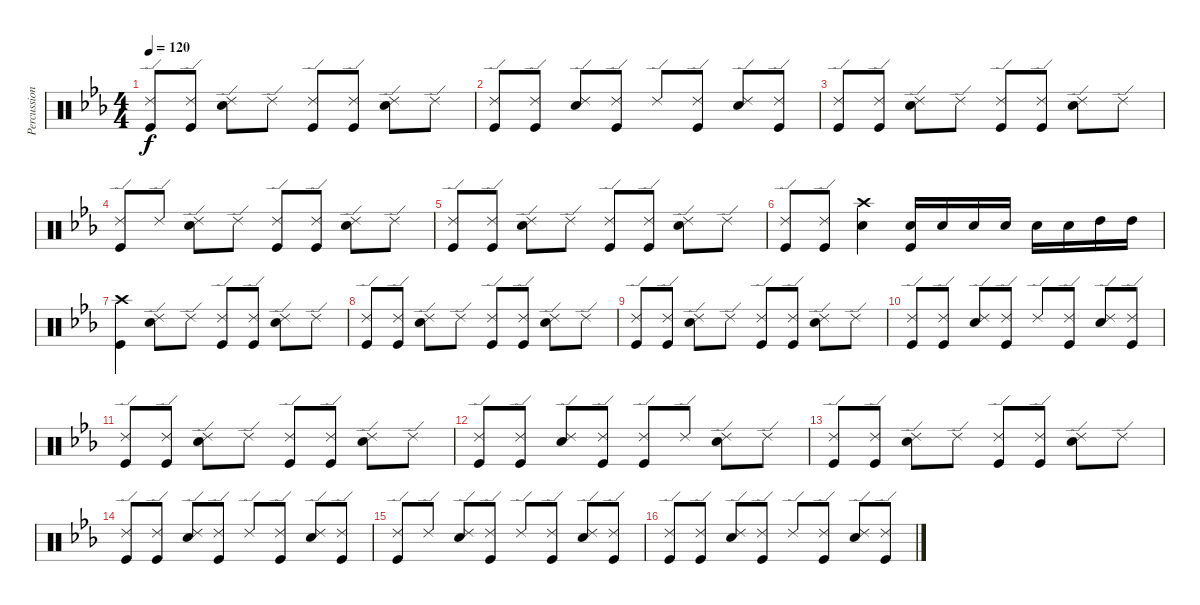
\track ("Percussion" "Percussion") {instrument percussion}
\staff {score}
\articulation defaults
\ts (4 4)
\tempo 120
\clef neutral
\ks eb
("Ride (edge) 2" "Kick (hit)").8{dy f} ("Ride (edge) 2" "Kick (hit)").8 ("Ride (edge) 2" "Snare (hit) 2").8 "Ride (edge) 2".8 ("Ride (edge) 2" "Kick (hit)").8 ("Ride (edge) 2" "Kick (hit)").8 ("Ride (edge) 2" "Snare (hit) 2").8 "Ride (edge) 2".8 |
("Ride (edge) 2" "Kick (hit)").8 ("Ride (edge) 2" "Kick (hit)").8 ("Ride (edge) 2" "Snare (hit) 2").8 ("Ride (edge) 2" "Kick (hit)").8 "Ride (edge) 2".8 ("Ride (edge) 2" "Kick (hit)").8 ("Ride (edge) 2" "Snare (hit) 2").8 ("Ride (edge) 2" "Kick (hit)").8 |
("Ride (edge) 2" "Kick (hit)").8 ("Ride (edge) 2" "Kick (hit)").8 ("Ride (edge) 2" "Snare (hit) 2").8 "Ride (edge) 2".8 ("Ride (edge) 2" "Kick (hit)").8 ("Ride (edge) 2" "Kick (hit)").8 ("Ride (edge) 2" "Snare (hit) 2").8 "Ride (edge) 2".8 |
("Ride (edge) 2" "Kick (hit)").8 "Ride (edge) 2".8 ("Ride (edge) 2" "Snare (hit) 2").8 "Ride (edge) 2".8 ("Ride (edge) 2" "Kick (hit)").8 ("Ride (edge) 2" "Kick (hit)").8 ("Ride (edge) 2" "Snare (hit) 2").8 "Ride (edge) 2".8 |
("Ride (edge) 2" "Kick (hit)").8 ("Ride (edge) 2" "Kick (hit)").8 ("Ride (edge) 2" "Snare (hit) 2").8 "Ride (edge) 2".8 ("Ride (edge) 2" "Kick (hit)").8 ("Ride (edge) 2" "Kick (hit)").8 ("Ride (edge) 2" "Snare (hit) 2").8 "Ride (edge) 2".8 |
("Ride (edge) 2" "Kick (hit)").8 ("Ride (edge) 2" "Kick (hit)").8 ("Crash high (hit)" "Snare (hit) 2").4 ("Snare (hit) 2" "Kick (hit)").16 "Snare (hit) 2".16 "Snare (hit) 2".16 "Snare (hit) 2".16 "Snare (hit) 2".16 "Snare (hit) 2".16 "High Tom (hit)".16 "High Tom (hit)".16 |
("Crash high (hit)" "Kick (hit)").4 ("Ride (edge) 2" "Snare (hit) 2").8 "Ride (edge) 2".8 ("Ride (edge) 2" "Kick (hit)").8 ("Ride (edge) 2" "Kick (hit)").8 ("Ride (edge) 2" "Snare (hit) 2").8 "Ride (edge) 2".8 |
("Ride (edge) 2" "Kick (hit)").8 ("Ride (edge) 2" "Kick (hit)").8 ("Ride (edge) 2" "Snare (hit) 2").8 "Ride (edge) 2".8 ("Ride (edge) 2" "Kick (hit)").8 ("Ride (edge) 2" "Kick (hit)").8 ("Ride (edge) 2" "Snare (hit) 2").8 "Ride (edge) 2".8 |
("Ride (edge) 2" "Kick (hit)").8 ("Ride (edge) 2" "Kick (hit)").8 ("Ride (edge) 2" "Snare (hit) 2").8 "Ride (edge) 2".8 ("Ride (edge) 2" "Kick (hit)").8 ("Ride (edge) 2" "Kick (hit)").8 ("Ride (edge) 2" "Snare (hit) 2").8 "Ride (edge) 2".8 |
("Ride (edge) 2" "Kick (hit)").8 ("Ride (edge) 2" "Kick (hit)").8 ("Ride (edge) 2" "Snare (hit) 2").8 ("Ride (edge) 2" "Kick (hit)").8 "Ride (edge) 2".8 ("Ride (edge) 2" "Kick (hit)").8 ("Ride (edge) 2" "Snare (hit) 2").8 ("Ride (edge) 2" "Kick (hit)").8 |
("Ride (edge) 2" "Kick (hit)").8 ("Ride (edge) 2" "Kick (hit)").8 ("Ride (edge) 2" "Snare (hit) 2").8 "Ride (edge) 2".8 ("Ride (edge) 2" "Kick (hit)").8 ("Ride (edge) 2" "Kick (hit)").8 ("Ride (edge) 2" "Snare (hit) 2").8 "Ride (edge) 2".8 |
("Ride (edge) 2" "Kick (hit)").8 ("Ride (edge) 2" "Kick (hit)").8 ("Ride (edge) 2" "Snare (hit) 2").8 ("Ride (edge) 2" "Kick (hit)").8 ("Ride (edge) 2" "Kick (hit)").8 "Ride (edge) 2".8 ("Ride (edge) 2" "Snare (hit) 2").8 "Ride (edge) 2".8 |
("Ride (edge) 2" "Kick (hit)").8 ("Ride (edge) 2" "Kick (hit)").8 ("Ride (edge) 2" "Snare (hit) 2").8 "Ride (edge) 2".8 ("Ride (edge) 2" "Kick (hit)").8 ("Ride (edge) 2" "Kick (hit)").8 ("Ride (edge) 2" "Snare (hit) 2").8 "Ride (edge) 2".8 |
("Ride (edge) 2" "Kick (hit)").8 ("Ride (edge) 2" "Kick (hit)").8 ("Ride (edge) 2" "Snare (hit) 2").8 ("Ride (edge) 2" "Kick (hit)").8 "Ride (edge) 2".8 ("Ride (edge) 2" "Kick (hit)").8 ("Ride (edge) 2" "Snare (hit) 2").8 ("Ride (edge) 2" "Kick (hit)").8 |
("Ride (edge) 2" "Kick (hit)").8 "Ride (edge) 2".8 ("Ride (edge) 2" "Snare (hit) 2").8 ("Ride (edge) 2" "Kick (hit)").8 "Ride (edge) 2".8 ("Ride (edge) 2" "Kick (hit)").8 ("Ride (edge) 2" "Snare (hit) 2").8 ("Ride (edge) 2" "Kick (hit)").8 |
("Ride (edge) 2" "Kick (hit)").8 ("Ride (edge) 2" "Kick (hit)").8 ("Ride (edge) 2" "Snare (hit) 2").8 ("Ride (edge) 2" "Kick (hit)").8 "Ride (edge) 2".8 ("Ride (edge) 2" "Kick (hit)").8 ("Ride (edge) 2" "Snare (hit) 2").8 ("Ride (edge) 2" "Kick (hit)").8
